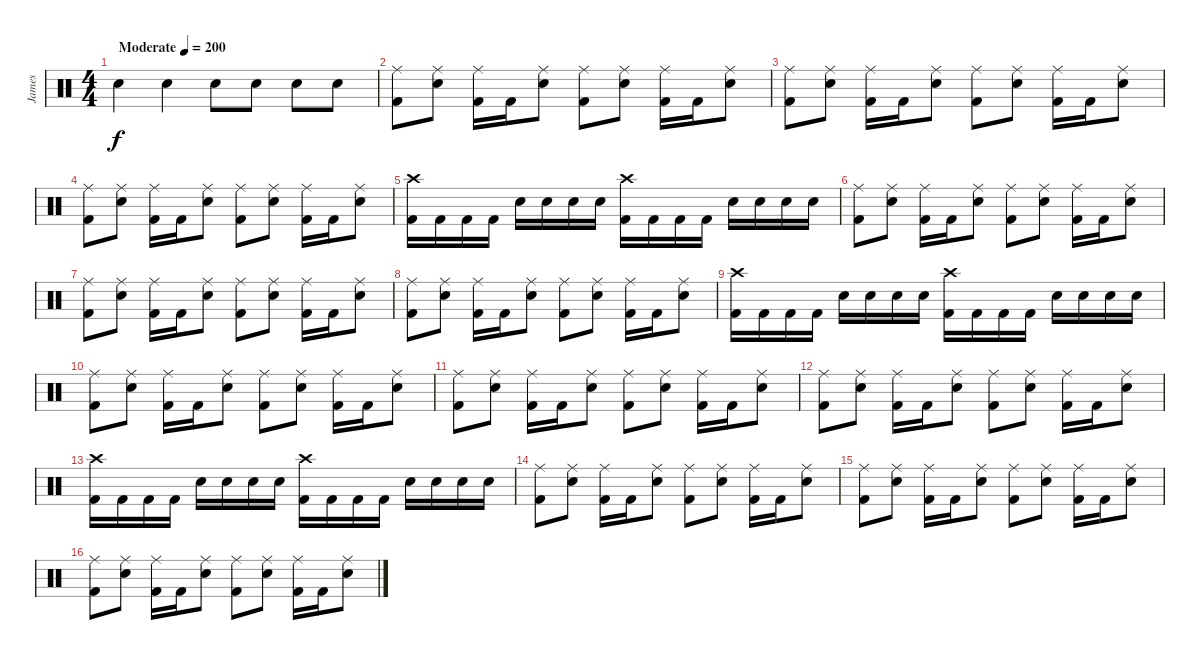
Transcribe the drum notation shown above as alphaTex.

\track ("James" "James") {instrument percussion}
\staff {score}
\articulation defaults
\ts (4 4)
\tempo (200 "Moderate")
\clef neutral
\ks c "Electric Snare (hit)".4{dy f} "Electric Snare (hit)".4 "Electric Snare (hit)".8 "Electric Snare (hit)".8 "Electric Snare (hit)".8 "Electric Snare (hit)".8
|
("Kick (hit) 2" "Ride (middle)").8 ("Electric Snare (hit)" "Ride (middle)").8 ("Kick (hit) 2" "Ride (middle)").16 "Kick (hit) 2".16 ("Electric Snare (hit)" "Ride (middle)").8 ("Kick (hit) 2" "Ride (middle)").8 ("Electric Snare (hit)" "Ride (middle)").8 ("Kick (hit) 2" "Ride (middle)").16 "Kick (hit) 2".16 ("Electric Snare (hit)" "Ride (middle)").8 |
("Kick (hit) 2" "Ride (middle)").8 ("Electric Snare (hit)" "Ride (middle)").8 ("Kick (hit) 2" "Ride (middle)").16 "Kick (hit) 2".16 ("Electric Snare (hit)" "Ride (middle)").8 ("Kick (hit) 2" "Ride (middle)").8 ("Electric Snare (hit)" "Ride (middle)").8 ("Kick (hit) 2" "Ride (middle)").16 "Kick (hit) 2".16 ("Electric Snare (hit)" "Ride (middle)").8 |
("Kick (hit) 2" "Ride (middle)").8 ("Electric Snare (hit)" "Ride (middle)").8 ("Kick (hit) 2" "Ride (middle)").16 "Kick (hit) 2".16 ("Electric Snare (hit)" "Ride (middle)").8 ("Kick (hit) 2" "Ride (middle)").8 ("Electric Snare (hit)" "Ride (middle)").8 ("Kick (hit) 2" "Ride (middle)").16 "Kick (hit) 2".16 ("Electric Snare (hit)" "Ride (middle)").8 |
("Kick (hit) 2" "Crash high (hit)").16 "Kick (hit) 2".16 "Kick (hit) 2".16 "Kick (hit) 2".16 "Electric Snare (hit)".16 "Electric Snare (hit)".16 "Electric Snare (hit)".16 "Electric Snare (hit)".16 ("Kick (hit) 2" "Crash high (hit)").16 "Kick (hit) 2".16 "Kick (hit) 2".16 "Kick (hit) 2".16 "Electric Snare (hit)".16 "Electric Snare (hit)".16 "Electric Snare (hit)".16 "Electric Snare (hit)".16 |
("Kick (hit) 2" "Ride (middle)").8 ("Electric Snare (hit)" "Ride (middle)").8 ("Kick (hit) 2" "Ride (middle)").16 "Kick (hit) 2".16 ("Electric Snare (hit)" "Ride (middle)").8 ("Kick (hit) 2" "Ride (middle)").8 ("Electric Snare (hit)" "Ride (middle)").8 ("Kick (hit) 2" "Ride (middle)").16 "Kick (hit) 2".16 ("Electric Snare (hit)" "Ride (middle)").8 |
("Kick (hit) 2" "Ride (middle)").8 ("Electric Snare (hit)" "Ride (middle)").8 ("Kick (hit) 2" "Ride (middle)").16 "Kick (hit) 2".16 ("Electric Snare (hit)" "Ride (middle)").8 ("Kick (hit) 2" "Ride (middle)").8 ("Electric Snare (hit)" "Ride (middle)").8 ("Kick (hit) 2" "Ride (middle)").16 "Kick (hit) 2".16 ("Electric Snare (hit)" "Ride (middle)").8 |
("Kick (hit) 2" "Ride (middle)").8 ("Electric Snare (hit)" "Ride (middle)").8 ("Kick (hit) 2" "Ride (middle)").16 "Kick (hit) 2".16 ("Electric Snare (hit)" "Ride (middle)").8 ("Kick (hit) 2" "Ride (middle)").8 ("Electric Snare (hit)" "Ride (middle)").8 ("Kick (hit) 2" "Ride (middle)").16 "Kick (hit) 2".16 ("Electric Snare (hit)" "Ride (middle)").8 |
("Kick (hit) 2" "Crash high (hit)").16 "Kick (hit) 2".16 "Kick (hit) 2".16 "Kick (hit) 2".16 "Electric Snare (hit)".16 "Electric Snare (hit)".16 "Electric Snare (hit)".16 "Electric Snare (hit)".16 ("Kick (hit) 2" "Crash high (hit)").16 "Kick (hit) 2".16 "Kick (hit) 2".16 "Kick (hit) 2".16 "Electric Snare (hit)".16 "Electric Snare (hit)".16 "Electric Snare (hit)".16 "Electric Snare (hit)".16 |
("Kick (hit) 2" "Ride (middle)").8 ("Electric Snare (hit)" "Ride (middle)").8 ("Kick (hit) 2" "Ride (middle)").16 "Kick (hit) 2".16 ("Electric Snare (hit)" "Ride (middle)").8 ("Kick (hit) 2" "Ride (middle)").8 ("Electric Snare (hit)" "Ride (middle)").8 ("Kick (hit) 2" "Ride (middle)").16 "Kick (hit) 2".16 ("Electric Snare (hit)" "Ride (middle)").8 |
("Kick (hit) 2" "Ride (middle)").8 ("Electric Snare (hit)" "Ride (middle)").8 ("Kick (hit) 2" "Ride (middle)").16 "Kick (hit) 2".16 ("Electric Snare (hit)" "Ride (middle)").8 ("Kick (hit) 2" "Ride (middle)").8 ("Electric Snare (hit)" "Ride (middle)").8 ("Kick (hit) 2" "Ride (middle)").16 "Kick (hit) 2".16 ("Electric Snare (hit)" "Ride (middle)").8 |
("Kick (hit) 2" "Ride (middle)").8 ("Electric Snare (hit)" "Ride (middle)").8 ("Kick (hit) 2" "Ride (middle)").16 "Kick (hit) 2".16 ("Electric Snare (hit)" "Ride (middle)").8 ("Kick (hit) 2" "Ride (middle)").8 ("Electric Snare (hit)" "Ride (middle)").8 ("Kick (hit) 2" "Ride (middle)").16 "Kick (hit) 2".16 ("Electric Snare (hit)" "Ride (middle)").8 |
("Kick (hit) 2" "Crash high (hit)").16 "Kick (hit) 2".16 "Kick (hit) 2".16 "Kick (hit) 2".16 "Electric Snare (hit)".16 "Electric Snare (hit)".16 "Electric Snare (hit)".16 "Electric Snare (hit)".16 ("Kick (hit) 2" "Crash high (hit)").16 "Kick (hit) 2".16 "Kick (hit) 2".16 "Kick (hit) 2".16 "Electric Snare (hit)".16 "Electric Snare (hit)".16 "Electric Snare (hit)".16 "Electric Snare (hit)".16 |
("Kick (hit) 2" "Ride (middle)").8 ("Electric Snare (hit)" "Ride (middle)").8 ("Kick (hit) 2" "Ride (middle)").16 "Kick (hit) 2".16 ("Electric Snare (hit)" "Ride (middle)").8 ("Kick (hit) 2" "Ride (middle)").8 ("Electric Snare (hit)" "Ride (middle)").8 ("Kick (hit) 2" "Ride (middle)").16 "Kick (hit) 2".16 ("Electric Snare (hit)" "Ride (middle)").8 |
("Kick (hit) 2" "Ride (middle)").8 ("Electric Snare (hit)" "Ride (middle)").8 ("Kick (hit) 2" "Ride (middle)").16 "Kick (hit) 2".16 ("Electric Snare (hit)" "Ride (middle)").8 ("Kick (hit) 2" "Ride (middle)").8 ("Electric Snare (hit)" "Ride (middle)").8 ("Kick (hit) 2" "Ride (middle)").16 "Kick (hit) 2".16 ("Electric Snare (hit)" "Ride (middle)").8 |
("Kick (hit) 2" "Ride (middle)").8 ("Electric Snare (hit)" "Ride (middle)").8 ("Kick (hit) 2" "Ride (middle)").16 "Kick (hit) 2".16 ("Electric Snare (hit)" "Ride (middle)").8 ("Kick (hit) 2" "Ride (middle)").8 ("Electric Snare (hit)" "Ride (middle)").8 ("Kick (hit) 2" "Ride (middle)").16 "Kick (hit) 2".16 ("Electric Snare (hit)" "Ride (middle)").8
